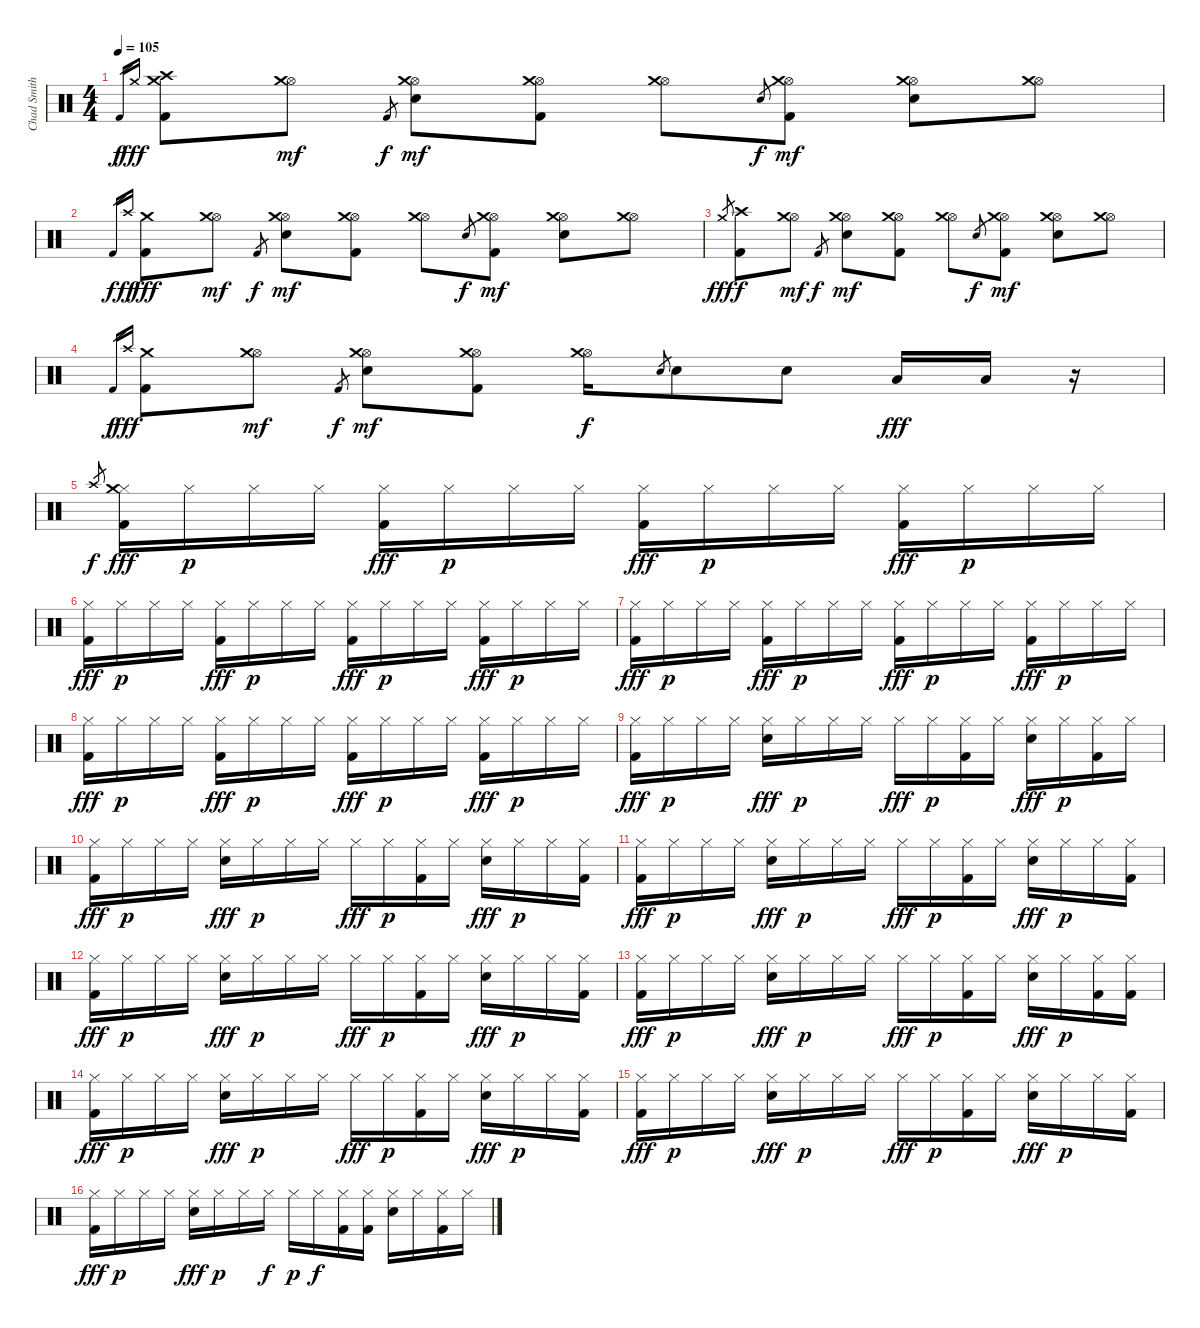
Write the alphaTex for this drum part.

\track ("Chad Smith" "Chad Smith") {instrument percussion}
\staff {score}
\articulation defaults
\ts (4 4)
\tempo 105
\clef neutral
\ks c "Kick (hit) 2".16{gr dy f} "Crash medium (hit)".16{gr dy fff}
("Kick (hit) 2" "Crash medium (hit)" "Crash high (hit)").8 ("Hi-Hat (open)" "Crash medium (hit)").8{dy mf} "Kick (hit) 2".8{gr dy f} ("Hi-Hat (open)" "Electric Snare (hit)" "Crash medium (hit)").8{dy mf} ("Hi-Hat (open)" "Kick (hit) 2" "Crash medium (hit)").8 ("Hi-Hat (open)" "Crash medium (hit)").8 "Electric Snare (hit)".8{gr dy f} ("Hi-Hat (open)" "Kick (hit) 2" "Crash medium (hit)").8{dy mf} ("Hi-Hat (open)" "Electric Snare (hit)" "Crash medium (hit)").8 ("Hi-Hat (open)" "Crash medium (hit)").8 |
"Kick (hit) 2".16{gr dy f} "Crash high (hit)".16{gr dy ff} ("Kick (hit) 2" "Crash medium (hit)").8{dy fff} ("Hi-Hat (open)" "Crash medium (hit)").8{dy mf} "Kick (hit) 2".8{gr dy f} ("Hi-Hat (open)" "Electric Snare (hit)" "Crash medium (hit)").8{dy mf} ("Hi-Hat (open)" "Kick (hit) 2" "Crash medium (hit)").8 ("Hi-Hat (open)" "Crash medium (hit)").8 "Electric Snare (hit)".8{gr dy f} ("Hi-Hat (open)" "Kick (hit) 2" "Crash medium (hit)").8{dy mf} ("Hi-Hat (open)" "Electric Snare (hit)" "Crash medium (hit)").8 ("Hi-Hat (open)" "Crash medium (hit)").8 |
"Crash medium (hit)".8{gr dy fff} ("Kick (hit) 2" "Crash high (hit)").8{dy f} ("Hi-Hat (open)" "Crash medium (hit)").8{dy mf} "Kick (hit) 2".8{gr dy f} ("Hi-Hat (open)" "Electric Snare (hit)" "Crash medium (hit)").8{dy mf} ("Hi-Hat (open)" "Kick (hit) 2" "Crash medium (hit)").8 ("Hi-Hat (open)" "Crash medium (hit)").8 "Electric Snare (hit)".8{gr dy f} ("Hi-Hat (open)" "Kick (hit) 2" "Crash medium (hit)").8{dy mf} ("Hi-Hat (open)" "Electric Snare (hit)" "Crash medium (hit)").8 ("Hi-Hat (open)" "Crash medium (hit)").8 |
"Kick (hit) 2".16{gr dy f} "Crash high (hit)".16{gr dy fff} ("Kick (hit) 2" "Crash medium (hit)").8 ("Hi-Hat (open)" "Crash medium (hit)").8{dy mf} "Kick (hit) 2".8{gr dy f} ("Hi-Hat (open)" "Electric Snare (hit)" "Crash medium (hit)").8{dy mf} ("Hi-Hat (open)" "Kick (hit) 2" "Crash medium (hit)").8 ("Hi-Hat (open)" "Crash medium (hit)").16{dy f} "Electric Snare (hit)".8{gr} "Electric Snare (hit)".8 "Electric Snare (hit)".8 "Low Tom (hit)".16{dy fff} "Low Tom (hit)".16 r.16 |
"Crash high (hit)".8{gr dy f} ("Hi-Hat (closed)" "Kick (hit) 2" "Crash medium (hit)").16{dy fff} "Hi-Hat (closed)".16{dy p} "Hi-Hat (closed)".16 "Hi-Hat (closed)".16 ("Hi-Hat (closed)" "Kick (hit) 2").16{dy fff} "Hi-Hat (closed)".16{dy p} "Hi-Hat (closed)".16 "Hi-Hat (closed)".16 ("Hi-Hat (closed)" "Kick (hit) 2").16{dy fff} "Hi-Hat (closed)".16{dy p} "Hi-Hat (closed)".16 "Hi-Hat (closed)".16 ("Hi-Hat (closed)" "Kick (hit) 2").16{dy fff} "Hi-Hat (closed)".16{dy p} "Hi-Hat (closed)".16 "Hi-Hat (closed)".16 |
("Hi-Hat (closed)" "Kick (hit) 2").16{dy fff} "Hi-Hat (closed)".16{dy p} "Hi-Hat (closed)".16 "Hi-Hat (closed)".16 ("Hi-Hat (closed)" "Kick (hit) 2").16{dy fff} "Hi-Hat (closed)".16{dy p} "Hi-Hat (closed)".16 "Hi-Hat (closed)".16 ("Hi-Hat (closed)" "Kick (hit) 2").16{dy fff} "Hi-Hat (closed)".16{dy p} "Hi-Hat (closed)".16 "Hi-Hat (closed)".16 ("Hi-Hat (closed)" "Kick (hit) 2").16{dy fff} "Hi-Hat (closed)".16{dy p} "Hi-Hat (closed)".16 "Hi-Hat (closed)".16 |
("Hi-Hat (closed)" "Kick (hit) 2").16{dy fff} "Hi-Hat (closed)".16{dy p} "Hi-Hat (closed)".16 "Hi-Hat (closed)".16 ("Hi-Hat (closed)" "Kick (hit) 2").16{dy fff} "Hi-Hat (closed)".16{dy p} "Hi-Hat (closed)".16 "Hi-Hat (closed)".16 ("Hi-Hat (closed)" "Kick (hit) 2").16{dy fff} "Hi-Hat (closed)".16{dy p} "Hi-Hat (closed)".16 "Hi-Hat (closed)".16 ("Hi-Hat (closed)" "Kick (hit) 2").16{dy fff} "Hi-Hat (closed)".16{dy p} "Hi-Hat (closed)".16 "Hi-Hat (closed)".16 |
("Hi-Hat (closed)" "Kick (hit) 2").16{dy fff} "Hi-Hat (closed)".16{dy p} "Hi-Hat (closed)".16 "Hi-Hat (closed)".16 ("Hi-Hat (closed)" "Kick (hit) 2").16{dy fff} "Hi-Hat (closed)".16{dy p} "Hi-Hat (closed)".16 "Hi-Hat (closed)".16 ("Hi-Hat (closed)" "Kick (hit) 2").16{dy fff} "Hi-Hat (closed)".16{dy p} "Hi-Hat (closed)".16 "Hi-Hat (closed)".16 ("Hi-Hat (closed)" "Kick (hit) 2").16{dy fff} "Hi-Hat (closed)".16{dy p} "Hi-Hat (closed)".16 "Hi-Hat (closed)".16 |
("Hi-Hat (closed)" "Kick (hit) 2").16{dy fff} "Hi-Hat (closed)".16{dy p} "Hi-Hat (closed)".16 "Hi-Hat (closed)".16 ("Hi-Hat (closed)" "Electric Snare (hit)").16{dy fff} "Hi-Hat (closed)".16{dy p} "Hi-Hat (closed)".16 "Hi-Hat (closed)".16 "Hi-Hat (closed)".16{dy fff} "Hi-Hat (closed)".16{dy p} ("Hi-Hat (closed)" "Kick (hit) 2").16 "Hi-Hat (closed)".16 ("Hi-Hat (closed)" "Electric Snare (hit)").16{dy fff} "Hi-Hat (closed)".16{dy p} ("Hi-Hat (closed)" "Kick (hit) 2").16 "Hi-Hat (closed)".16 |
("Hi-Hat (closed)" "Kick (hit) 2").16{dy fff} "Hi-Hat (closed)".16{dy p} "Hi-Hat (closed)".16 "Hi-Hat (closed)".16 ("Hi-Hat (closed)" "Electric Snare (hit)").16{dy fff} "Hi-Hat (closed)".16{dy p} "Hi-Hat (closed)".16 "Hi-Hat (closed)".16 "Hi-Hat (closed)".16{dy fff} "Hi-Hat (closed)".16{dy p} ("Hi-Hat (closed)" "Kick (hit) 2").16 "Hi-Hat (closed)".16 ("Hi-Hat (closed)" "Electric Snare (hit)").16{dy fff} "Hi-Hat (closed)".16{dy p} "Hi-Hat (closed)".16 ("Hi-Hat (closed)" "Kick (hit) 2").16 |
("Hi-Hat (closed)" "Kick (hit) 2").16{dy fff} "Hi-Hat (closed)".16{dy p} "Hi-Hat (closed)".16 "Hi-Hat (closed)".16 ("Hi-Hat (closed)" "Electric Snare (hit)").16{dy fff} "Hi-Hat (closed)".16{dy p} "Hi-Hat (closed)".16 "Hi-Hat (closed)".16 "Hi-Hat (closed)".16{dy fff} "Hi-Hat (closed)".16{dy p} ("Hi-Hat (closed)" "Kick (hit) 2").16 "Hi-Hat (closed)".16 ("Hi-Hat (closed)" "Electric Snare (hit)").16{dy fff} "Hi-Hat (closed)".16{dy p} "Hi-Hat (closed)".16 ("Hi-Hat (closed)" "Kick (hit) 2").16 |
("Hi-Hat (closed)" "Kick (hit) 2").16{dy fff} "Hi-Hat (closed)".16{dy p} "Hi-Hat (closed)".16 "Hi-Hat (closed)".16 ("Hi-Hat (closed)" "Electric Snare (hit)").16{dy fff} "Hi-Hat (closed)".16{dy p} "Hi-Hat (closed)".16 "Hi-Hat (closed)".16 "Hi-Hat (closed)".16{dy fff} "Hi-Hat (closed)".16{dy p} ("Hi-Hat (closed)" "Kick (hit) 2").16 "Hi-Hat (closed)".16 ("Hi-Hat (closed)" "Electric Snare (hit)").16{dy fff} "Hi-Hat (closed)".16{dy p} "Hi-Hat (closed)".16 ("Hi-Hat (closed)" "Kick (hit) 2").16 |
("Hi-Hat (closed)" "Kick (hit) 2").16{dy fff} "Hi-Hat (closed)".16{dy p} "Hi-Hat (closed)".16 "Hi-Hat (closed)".16 ("Hi-Hat (closed)" "Electric Snare (hit)").16{dy fff} "Hi-Hat (closed)".16{dy p} "Hi-Hat (closed)".16 "Hi-Hat (closed)".16 "Hi-Hat (closed)".16{dy fff} "Hi-Hat (closed)".16{dy p} ("Hi-Hat (closed)" "Kick (hit) 2").16 "Hi-Hat (closed)".16 ("Hi-Hat (closed)" "Electric Snare (hit)").16{dy fff} "Hi-Hat (closed)".16{dy p} ("Hi-Hat (closed)" "Kick (hit) 2").16 ("Hi-Hat (closed)" "Kick (hit) 2").16 |
("Hi-Hat (closed)" "Kick (hit) 2").16{dy fff} "Hi-Hat (closed)".16{dy p} "Hi-Hat (closed)".16 "Hi-Hat (closed)".16 ("Hi-Hat (closed)" "Electric Snare (hit)").16{dy fff} "Hi-Hat (closed)".16{dy p} "Hi-Hat (closed)".16 "Hi-Hat (closed)".16 "Hi-Hat (closed)".16{dy fff} "Hi-Hat (closed)".16{dy p} ("Hi-Hat (closed)" "Kick (hit) 2").16 "Hi-Hat (closed)".16 ("Hi-Hat (closed)" "Electric Snare (hit)").16{dy fff} "Hi-Hat (closed)".16{dy p} "Hi-Hat (closed)".16 ("Hi-Hat (closed)" "Kick (hit) 2").16 |
("Hi-Hat (closed)" "Kick (hit) 2").16{dy fff} "Hi-Hat (closed)".16{dy p} "Hi-Hat (closed)".16 "Hi-Hat (closed)".16 ("Hi-Hat (closed)" "Electric Snare (hit)").16{dy fff} "Hi-Hat (closed)".16{dy p} "Hi-Hat (closed)".16 "Hi-Hat (closed)".16 "Hi-Hat (closed)".16{dy fff} "Hi-Hat (closed)".16{dy p} ("Hi-Hat (closed)" "Kick (hit) 2").16 "Hi-Hat (closed)".16 ("Hi-Hat (closed)" "Electric Snare (hit)").16{dy fff} "Hi-Hat (closed)".16{dy p} "Hi-Hat (closed)".16 ("Hi-Hat (closed)" "Kick (hit) 2").16 |
("Hi-Hat (closed)" "Kick (hit) 2").16{dy fff} "Hi-Hat (closed)".16{dy p} "Hi-Hat (closed)".16 "Hi-Hat (closed)".16 ("Hi-Hat (closed)" "Electric Snare (hit)").16{dy fff} "Hi-Hat (closed)".16{dy p} "Hi-Hat (closed)".16 "Hi-Hat (closed)".16{dy f} "Hi-Hat (closed)".16{dy p} "Hi-Hat (closed)".16{dy f} ("Hi-Hat (closed)" "Kick (hit) 2").16 ("Hi-Hat (closed)" "Kick (hit) 2").16 ("Hi-Hat (closed)" "Electric Snare (hit)").16 "Hi-Hat (closed)".16 ("Hi-Hat (closed)" "Kick (hit) 2").16 "Hi-Hat (closed)".16
